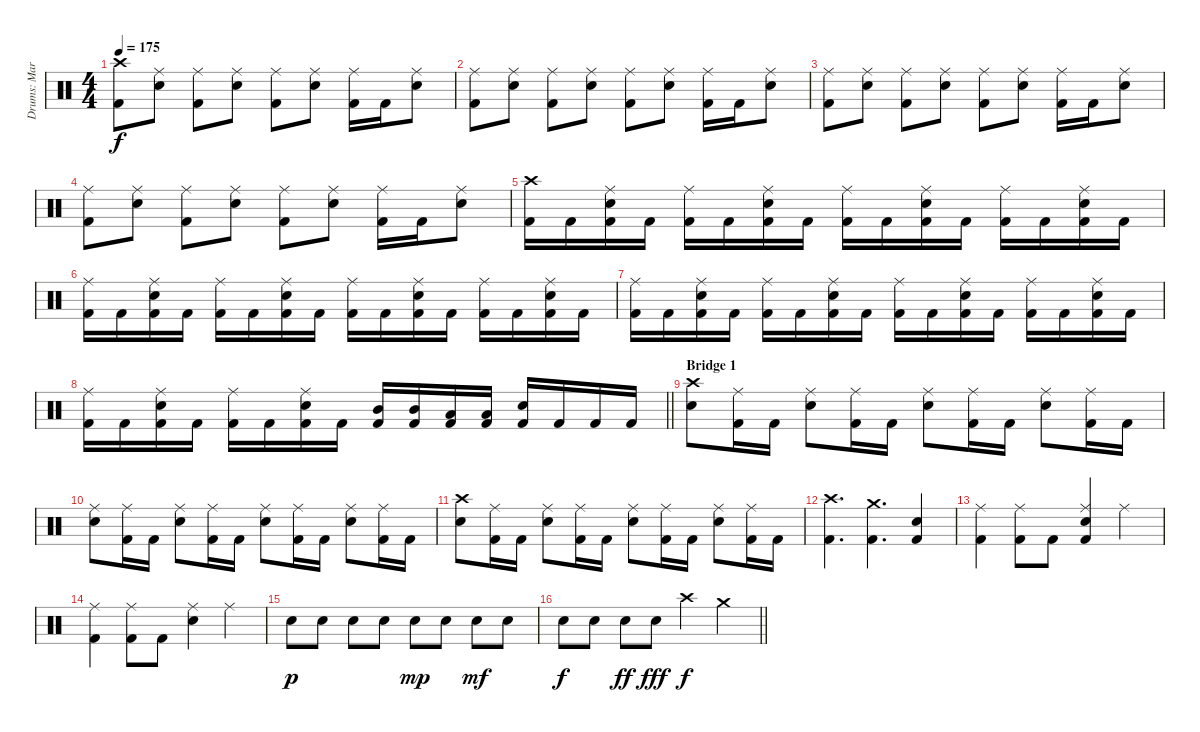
\track ("Drums: Martin Herzinger" "Drums: Mar") {instrument percussion}
\staff {score}
\articulation defaults
\ts (4 4)
\tempo 175
\clef neutral
\ks aminor
("Crash high (hit)" "Kick (hit) 2").8{dy f} ("Ride (middle)" "Snare (hit) 2").8 ("Ride (middle)" "Kick (hit) 2").8 ("Ride (middle)" "Snare (hit) 2").8 ("Ride (middle)" "Kick (hit) 2").8 ("Ride (middle)" "Snare (hit) 2").8 ("Ride (middle)" "Kick (hit) 2").16 "Kick (hit) 2".16 ("Ride (middle)" "Snare (hit) 2").8 |
("Ride (middle)" "Kick (hit) 2").8 ("Ride (middle)" "Snare (hit) 2").8 ("Ride (middle)" "Kick (hit) 2").8 ("Ride (middle)" "Snare (hit) 2").8 ("Ride (middle)" "Kick (hit) 2").8 ("Ride (middle)" "Snare (hit) 2").8 ("Ride (middle)" "Kick (hit) 2").16 "Kick (hit) 2".16 ("Ride (middle)" "Snare (hit) 2").8 |
("Ride (middle)" "Kick (hit) 2").8 ("Ride (middle)" "Snare (hit) 2").8 ("Ride (middle)" "Kick (hit) 2").8 ("Ride (middle)" "Snare (hit) 2").8 ("Ride (middle)" "Kick (hit) 2").8 ("Ride (middle)" "Snare (hit) 2").8 ("Ride (middle)" "Kick (hit) 2").16 "Kick (hit) 2".16 ("Ride (middle)" "Snare (hit) 2").8 |
("Ride (middle)" "Kick (hit) 2").8 ("Ride (middle)" "Snare (hit) 2").8 ("Ride (middle)" "Kick (hit) 2").8 ("Ride (middle)" "Snare (hit) 2").8 ("Ride (middle)" "Kick (hit) 2").8 ("Ride (middle)" "Snare (hit) 2").8 ("Ride (middle)" "Kick (hit) 2").16 "Kick (hit) 2".16 ("Ride (middle)" "Snare (hit) 2").8 |
("Crash high (hit)" "Kick (hit) 2").16 "Kick (hit) 2".16 ("Ride (middle)" "Snare (hit) 2" "Kick (hit) 2").16 "Kick (hit) 2".16 ("Ride (middle)" "Kick (hit) 2").16 "Kick (hit) 2".16 ("Ride (middle)" "Snare (hit) 2" "Kick (hit) 2").16 "Kick (hit) 2".16 ("Ride (middle)" "Kick (hit) 2").16 "Kick (hit) 2".16 ("Ride (middle)" "Snare (hit) 2" "Kick (hit) 2").16 "Kick (hit) 2".16 ("Ride (middle)" "Kick (hit) 2").16 "Kick (hit) 2".16 ("Ride (middle)" "Snare (hit) 2" "Kick (hit) 2").16 "Kick (hit) 2".16 |
("Ride (middle)" "Kick (hit) 2").16 "Kick (hit) 2".16 ("Ride (middle)" "Snare (hit) 2" "Kick (hit) 2").16 "Kick (hit) 2".16 ("Ride (middle)" "Kick (hit) 2").16 "Kick (hit) 2".16 ("Ride (middle)" "Snare (hit) 2" "Kick (hit) 2").16 "Kick (hit) 2".16 ("Ride (middle)" "Kick (hit) 2").16 "Kick (hit) 2".16 ("Ride (middle)" "Snare (hit) 2" "Kick (hit) 2").16 "Kick (hit) 2".16 ("Ride (middle)" "Kick (hit) 2").16 "Kick (hit) 2".16 ("Ride (middle)" "Snare (hit) 2" "Kick (hit) 2").16 "Kick (hit) 2".16 |
("Ride (middle)" "Kick (hit) 2").16 "Kick (hit) 2".16 ("Ride (middle)" "Snare (hit) 2" "Kick (hit) 2").16 "Kick (hit) 2".16 ("Ride (middle)" "Kick (hit) 2").16 "Kick (hit) 2".16 ("Ride (middle)" "Snare (hit) 2" "Kick (hit) 2").16 "Kick (hit) 2".16 ("Ride (middle)" "Kick (hit) 2").16 "Kick (hit) 2".16 ("Ride (middle)" "Snare (hit) 2" "Kick (hit) 2").16 "Kick (hit) 2".16 ("Ride (middle)" "Kick (hit) 2").16 "Kick (hit) 2".16 ("Ride (middle)" "Snare (hit) 2" "Kick (hit) 2").16 "Kick (hit) 2".16 |
\barLineRight lightlight
("Ride (middle)" "Kick (hit) 2").16 "Kick (hit) 2".16 ("Ride (middle)" "Snare (hit) 2" "Kick (hit) 2").16 "Kick (hit) 2".16 ("Ride (middle)" "Kick (hit) 2").16 "Kick (hit) 2".16 ("Ride (middle)" "Snare (hit) 2" "Kick (hit) 2").16 "Kick (hit) 2".16 ("Mid Tom (hit)" "Kick (hit) 2").16 ("Mid Tom (hit)" "Kick (hit) 2").16 ("Low Tom (hit)" "Kick (hit) 2").16 ("Low Tom (hit)" "Kick (hit) 2").16 ("Snare (hit) 2" "Kick (hit) 2").16 "Kick (hit) 2".16 "Kick (hit) 2".16 "Kick (hit) 2".16 |
\section ("" "Bridge 1")
("Crash high (hit)" "Snare (hit) 2").8 ("Ride (middle)" "Kick (hit) 2").16 "Kick (hit) 2".16 ("Ride (middle)" "Snare (hit) 2").8 ("Ride (middle)" "Kick (hit) 2").16 "Kick (hit) 2".16 ("Ride (middle)" "Snare (hit) 2").8 ("Ride (middle)" "Kick (hit) 2").16 "Kick (hit) 2".16 ("Ride (middle)" "Snare (hit) 2").8 ("Ride (middle)" "Kick (hit) 2").16 "Kick (hit) 2".16 |
("Ride (middle)" "Snare (hit) 2").8 ("Ride (middle)" "Kick (hit) 2").16 "Kick (hit) 2".16 ("Ride (middle)" "Snare (hit) 2").8 ("Ride (middle)" "Kick (hit) 2").16 "Kick (hit) 2".16 ("Ride (middle)" "Snare (hit) 2").8 ("Ride (middle)" "Kick (hit) 2").16 "Kick (hit) 2".16 ("Ride (middle)" "Snare (hit) 2").8 ("Ride (middle)" "Kick (hit) 2").16 "Kick (hit) 2".16 |
("Crash high (hit)" "Snare (hit) 2").8 ("Ride (middle)" "Kick (hit) 2").16 "Kick (hit) 2".16 ("Ride (middle)" "Snare (hit) 2").8 ("Ride (middle)" "Kick (hit) 2").16 "Kick (hit) 2".16 ("Ride (middle)" "Snare (hit) 2").8 ("Ride (middle)" "Kick (hit) 2").16 "Kick (hit) 2".16 ("Ride (middle)" "Snare (hit) 2").8 ("Ride (middle)" "Kick (hit) 2").16 "Kick (hit) 2".16 |
("Crash high (hit)" "Kick (hit) 2").4{d} ("Crash medium (hit)" "Kick (hit) 2").4{d} ("Snare (hit) 2" "Kick (hit) 2").4 |
("Ride (middle)" "Kick (hit) 2").4 ("Ride (middle)" "Kick (hit) 2").8 "Kick (hit) 2".8 ("Ride (middle)" "Snare (hit) 2" "Kick (hit) 2").4 "Ride (middle)".4 |
("Ride (middle)" "Kick (hit) 2").4 ("Ride (middle)" "Kick (hit) 2").8 "Kick (hit) 2".8 ("Ride (middle)" "Snare (hit) 2").4 "Ride (middle)".4 |
"Snare (hit) 2".8{dy p} "Snare (hit) 2".8 "Snare (hit) 2".8 "Snare (hit) 2".8 "Snare (hit) 2".8{dy mp} "Snare (hit) 2".8 "Snare (hit) 2".8{dy mf} "Snare (hit) 2".8 |
\barLineRight lightlight "Snare (hit) 2".8{dy f} "Snare (hit) 2".8 "Snare (hit) 2".8{dy ff} "Snare (hit) 2".8{dy fff} "Crash high (hit)".4{dy f} "Crash medium (hit)".4
